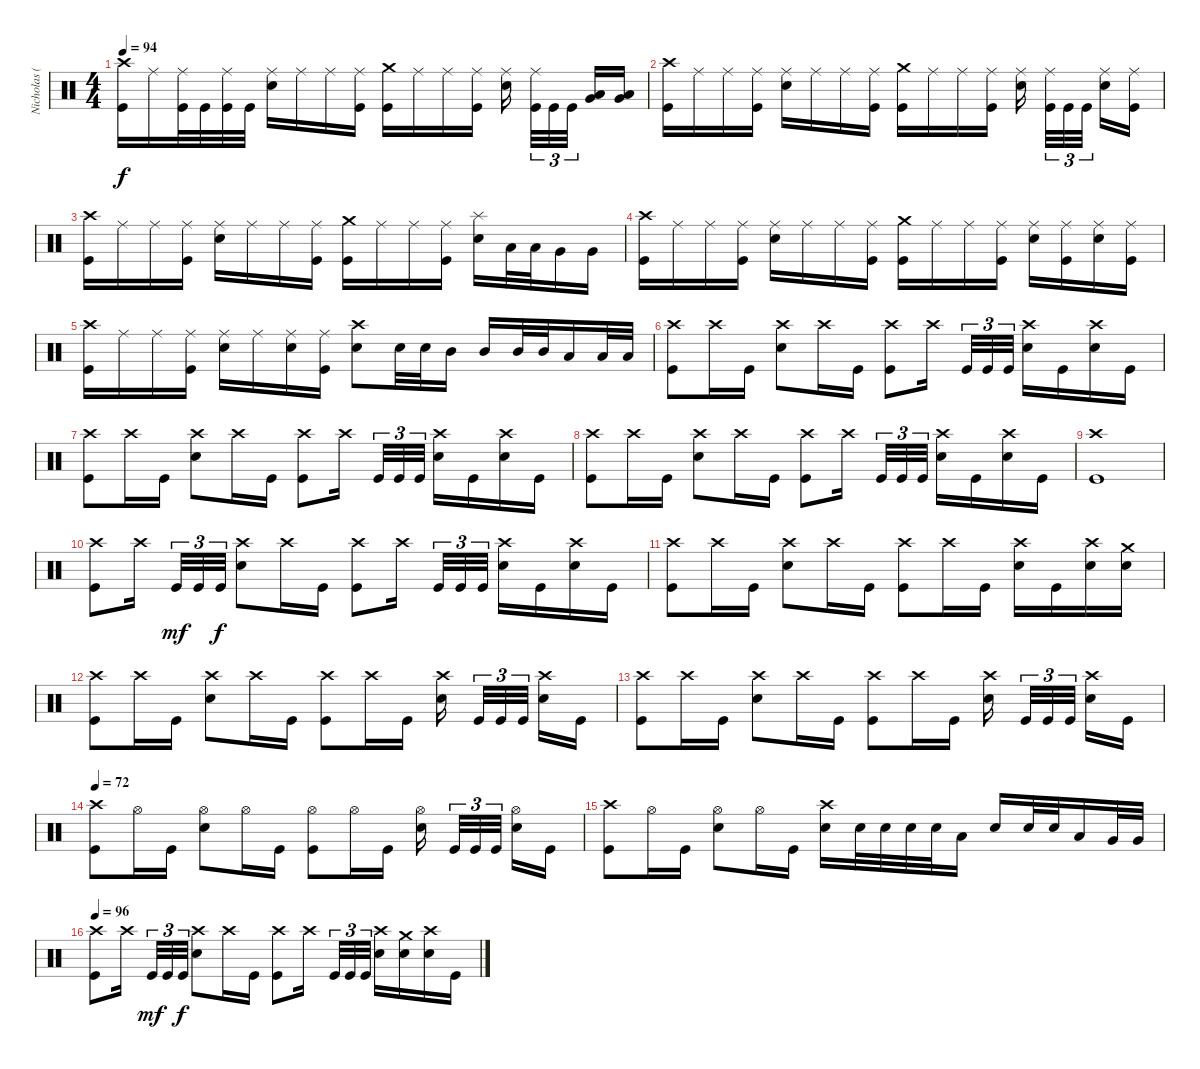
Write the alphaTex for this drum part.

\track ("Nicholas (Drums)" "Nicholas (") {instrument percussion}
\staff {score}
\articulation defaults
\ts (4 4)
\tempo 94
\clef neutral
\ks c
("Crash high (hit)" "Kick (hit)").16{dy f} "Ride (middle)".16 ("Ride (middle)" "Kick (hit)").32 "Kick (hit)".32 ("Ride (middle)" "Kick (hit)").32 "Kick (hit)".32 ("Ride (middle)" "Electric Snare (hit)").16 "Ride (middle)".16 "Ride (middle)".16 ("Ride (middle)" "Kick (hit)").16 ("Crash medium (hit)" "Kick (hit)").16 "Ride (middle)".16 "Ride (middle)".16 ("Ride (middle)" "Kick (hit)").16 ("Ride (middle)" "Electric Snare (hit)").16 ("Ride (middle)" "Kick (hit)").32{tu (3 2)} "Kick (hit)".32{tu (3 2)} "Kick (hit)".32{tu (3 2)} ("Low Tom (hit)" "Very Low Tom (hit)").16{bu 60} ("Low Tom (hit)" "Very Low Tom (hit)").16{bu 60} |
("Crash high (hit)" "Kick (hit)").16 "Ride (middle)".16 "Ride (middle)".16 ("Ride (middle)" "Kick (hit)").16 ("Ride (middle)" "Electric Snare (hit)").16 "Ride (middle)".16 "Ride (middle)".16 ("Ride (middle)" "Kick (hit)").16 ("Crash medium (hit)" "Kick (hit)").16 "Ride (middle)".16 "Ride (middle)".16 ("Ride (middle)" "Kick (hit)").16 ("Ride (middle)" "Electric Snare (hit)").16 ("Ride (middle)" "Kick (hit)").32{tu (3 2)} "Kick (hit)".32{tu (3 2)} "Kick (hit)".32{tu (3 2)} ("Ride (middle)" "Electric Snare (hit)").16 ("Ride (middle)" "Kick (hit)").16 |
("Crash high (hit)" "Kick (hit)").16 "Ride (middle)".16 "Ride (middle)".16 ("Ride (middle)" "Kick (hit)").16 ("Ride (middle)" "Electric Snare (hit)").16 "Ride (middle)".16 "Ride (middle)".16 ("Ride (middle)" "Kick (hit)").16 ("Crash medium (hit)" "Kick (hit)").16 "Ride (middle)".16 "Ride (middle)".16 ("Ride (middle)" "Kick (hit)").16 ("Splash (hit)" "Electric Snare (hit)").16 "Low Tom (hit)".32 "Low Tom (hit)".32 "Very Low Tom (hit)".16 "Very Low Tom (hit)".16 |
("Crash high (hit)" "Kick (hit)").16 "Ride (middle)".16 "Ride (middle)".16 ("Ride (middle)" "Kick (hit)").16 ("Ride (middle)" "Electric Snare (hit)").16 "Ride (middle)".16 "Ride (middle)".16 ("Ride (middle)" "Kick (hit)").16 ("Crash medium (hit)" "Kick (hit)").16 "Ride (middle)".16 "Ride (middle)".16 ("Ride (middle)" "Kick (hit)").16 ("Ride (middle)" "Electric Snare (hit)").16 ("Ride (middle)" "Kick (hit)").16 ("Ride (middle)" "Electric Snare (hit)").16 ("Ride (middle)" "Kick (hit)").16 |
("Crash high (hit)" "Kick (hit)").16 "Ride (middle)".16 "Ride (middle)".16 ("Ride (middle)" "Kick (hit)").16 ("Ride (middle)" "Electric Snare (hit)").16 "Ride (middle)".16 ("Ride (middle)" "Electric Snare (hit)").16 ("Ride (middle)" "Kick (hit)").16 ("Crash high (hit)" "Electric Snare (hit)").8 "Electric Snare (hit)".32 "Electric Snare (hit)".32 "Mid Tom (hit)".16 "Mid Tom (hit)".16 "Mid Tom (hit)".32 "Mid Tom (hit)".32 "Low Tom (hit)".16 "Low Tom (hit)".32 "Low Tom (hit)".32 |
("Crash high (hit)" "Kick (hit)").8 "Crash high (hit)".16 "Kick (hit)".16 ("Crash high (hit)" "Electric Snare (hit)").8 "Crash high (hit)".16 "Kick (hit)".16 ("Crash high (hit)" "Kick (hit)").8 "Crash high (hit)".16 "Kick (hit)".32{tu (3 2)} "Kick (hit)".32{tu (3 2)} "Kick (hit)".32{tu (3 2)} ("Crash high (hit)" "Electric Snare (hit)").16 "Kick (hit)".16 ("Crash high (hit)" "Electric Snare (hit)").16 "Kick (hit)".16 |
("Crash high (hit)" "Kick (hit)").8 "Crash high (hit)".16 "Kick (hit)".16 ("Crash high (hit)" "Electric Snare (hit)").8 "Crash high (hit)".16 "Kick (hit)".16 ("Crash high (hit)" "Kick (hit)").8 "Crash high (hit)".16 "Kick (hit)".32{tu (3 2)} "Kick (hit)".32{tu (3 2)} "Kick (hit)".32{tu (3 2)} ("Crash high (hit)" "Electric Snare (hit)").16 "Kick (hit)".16 ("Crash high (hit)" "Electric Snare (hit)").16 "Kick (hit)".16 |
("Crash high (hit)" "Kick (hit)").8 "Crash high (hit)".16 "Kick (hit)".16 ("Crash high (hit)" "Electric Snare (hit)").8 "Crash high (hit)".16 "Kick (hit)".16 ("Crash high (hit)" "Kick (hit)").8 "Crash high (hit)".16 "Kick (hit)".32{tu (3 2)} "Kick (hit)".32{tu (3 2)} "Kick (hit)".32{tu (3 2)} ("Crash high (hit)" "Electric Snare (hit)").16 "Kick (hit)".16 ("Crash high (hit)" "Electric Snare (hit)").16 "Kick (hit)".16 |
("Crash high (hit)" "Kick (hit)").1 |
("Crash high (hit)" "Kick (hit)").8 "Crash high (hit)".16 "Kick (hit)".32{tu (3 2) dy mf} "Kick (hit)".32{tu (3 2)} "Kick (hit)".32{tu (3 2) dy f} ("Crash high (hit)" "Electric Snare (hit)").8 "Crash high (hit)".16 "Kick (hit)".16 ("Crash high (hit)" "Kick (hit)").8 "Crash high (hit)".16 "Kick (hit)".32{tu (3 2)} "Kick (hit)".32{tu (3 2)} "Kick (hit)".32{tu (3 2)} ("Crash high (hit)" "Electric Snare (hit)").16 "Kick (hit)".16 ("Crash high (hit)" "Electric Snare (hit)").16 "Kick (hit)".16 |
("Crash high (hit)" "Kick (hit)").8 "Crash high (hit)".16 "Kick (hit)".16 ("Crash high (hit)" "Electric Snare (hit)").8 "Crash high (hit)".16 "Kick (hit)".16 ("Crash high (hit)" "Kick (hit)").8 "Crash high (hit)".16 "Kick (hit)".16 ("Crash high (hit)" "Electric Snare (hit)").16 "Kick (hit)".16 ("Crash high (hit)" "Electric Snare (hit)").16 ("Crash medium (hit)" "Electric Snare (hit)").16 |
("Crash high (hit)" "Kick (hit)").8 "Crash high (hit)".16 "Kick (hit)".16 ("Crash high (hit)" "Electric Snare (hit)").8 "Crash high (hit)".16 "Kick (hit)".16 ("Crash high (hit)" "Kick (hit)").8 "Crash high (hit)".16 "Kick (hit)".16 ("Crash high (hit)" "Electric Snare (hit)").16 "Kick (hit)".32{tu (3 2)} "Kick (hit)".32{tu (3 2)} "Kick (hit)".32{tu (3 2)} ("Crash high (hit)" "Electric Snare (hit)").16 "Kick (hit)".16 |
("Crash high (hit)" "Kick (hit)").8 "Crash high (hit)".16 "Kick (hit)".16 ("Crash high (hit)" "Electric Snare (hit)").8 "Crash high (hit)".16 "Kick (hit)".16 ("Crash high (hit)" "Kick (hit)").8 "Crash high (hit)".16 "Kick (hit)".16 ("Crash high (hit)" "Electric Snare (hit)").16 "Kick (hit)".32{tu (3 2)} "Kick (hit)".32{tu (3 2)} "Kick (hit)".32{tu (3 2)} ("Crash high (hit)" "Electric Snare (hit)").16 "Kick (hit)".16 |
\tempo 72
("Crash high (hit)" "Kick (hit)").8 "Hi-Hat (open)".16 "Kick (hit)".16 ("Hi-Hat (open)" "Electric Snare (hit)").8 "Hi-Hat (open)".16 "Kick (hit)".16 ("Hi-Hat (open)" "Kick (hit)").8 "Hi-Hat (open)".16 "Kick (hit)".16 ("Hi-Hat (open)" "Electric Snare (hit)").16 "Kick (hit)".32{tu (3 2)} "Kick (hit)".32{tu (3 2)} "Kick (hit)".32{tu (3 2)} ("Hi-Hat (open)" "Electric Snare (hit)").16 "Kick (hit)".16 |
("Crash high (hit)" "Kick (hit)").8 "Hi-Hat (open)".16 "Kick (hit)".16 ("Hi-Hat (open)" "Electric Snare (hit)").8 "Hi-Hat (open)".16 "Kick (hit)".16 ("Crash high (hit)" "Electric Snare (hit)").16 "Electric Snare (hit)".32 "Electric Snare (hit)".32 "Electric Snare (hit)".32 "Electric Snare (hit)".32 "Low Tom (hit)".16 "Electric Snare (hit)".16 "Electric Snare (hit)".32 "Electric Snare (hit)".32 "Low Tom (hit)".16 "Very Low Tom (hit)".32 "Very Low Tom (hit)".32 |
\tempo 96
("Crash high (hit)" "Kick (hit)").8 "Crash high (hit)".16 "Kick (hit)".32{tu (3 2) dy mf} "Kick (hit)".32{tu (3 2)} "Kick (hit)".32{tu (3 2) dy f} ("Crash high (hit)" "Electric Snare (hit)").8 "Crash high (hit)".16 "Kick (hit)".16 ("Crash high (hit)" "Kick (hit)").8 "Crash high (hit)".16 "Kick (hit)".32{tu (3 2)} "Kick (hit)".32{tu (3 2)} "Kick (hit)".32{tu (3 2)} ("Crash high (hit)" "Electric Snare (hit)").16 ("Crash medium (hit)" "Electric Snare (hit)").16 ("Crash high (hit)" "Electric Snare (hit)").16 "Kick (hit)".16
